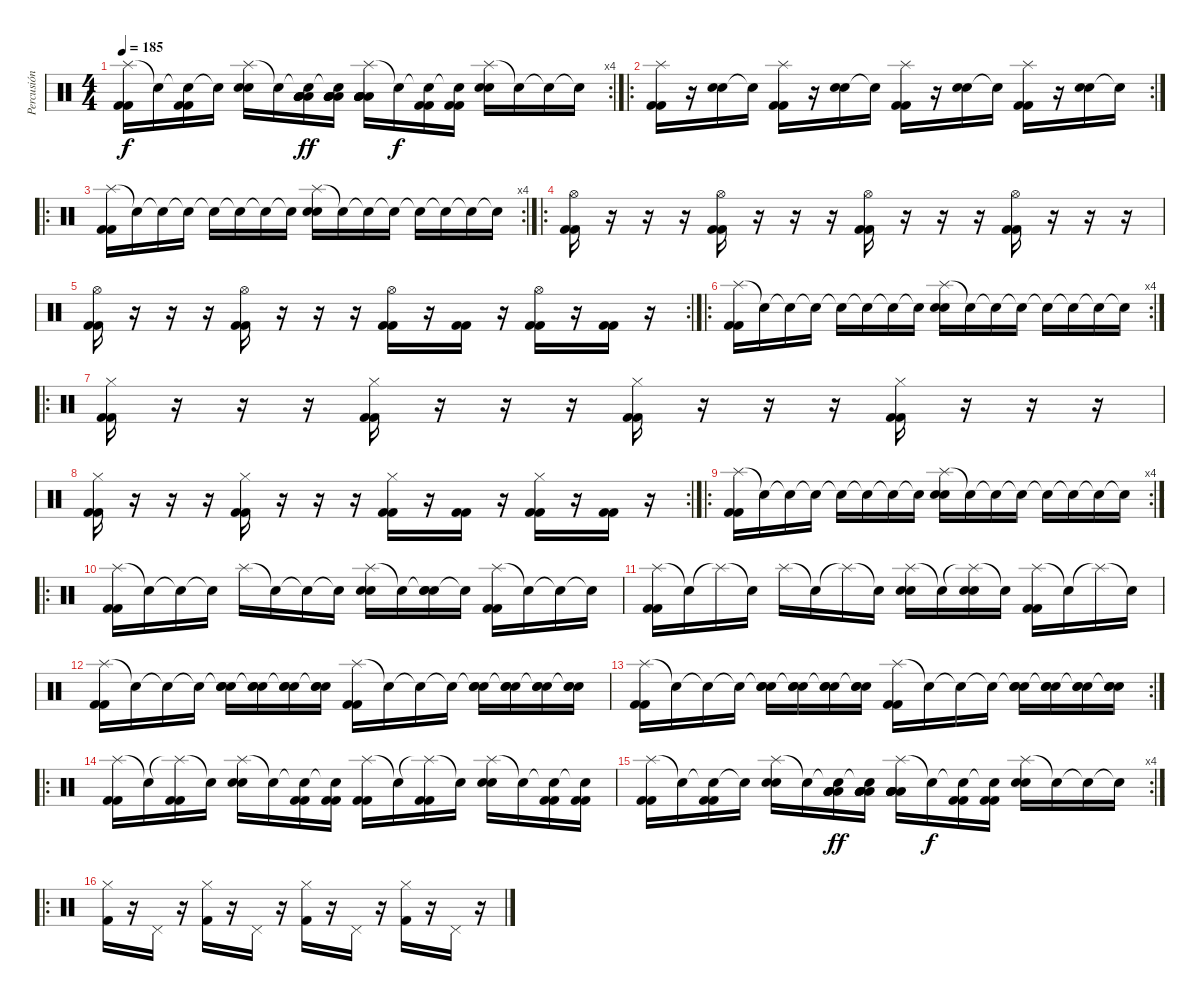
\track ("Percusión" "Percusión") {instrument percussion}
\staff {score}
\articulation defaults
\rc 4
\ts (4 4)
\tempo 185
\clef neutral
\ks c
("Splash (hit)" "Kick (hit) 2" "Kick (hit) 2").16{dy f} "Snare (hit)"{t}.16 ("Snare (hit)"{t} "Kick (hit) 2" "Kick (hit) 2").16 "Snare (hit)"{t}.16 ("Splash (hit)" "Electric Snare (hit)" "Electric Snare (hit)").16 "Snare (hit)"{t}.16 ("Snare (hit)"{t} "Low Tom (hit)" "Low Tom (hit)" "Low Tom (hit)" "Low Tom (hit)" "Low Tom (hit)").16{dy ff} ("Snare (hit)"{t} "Low Tom (hit)" "Low Tom (hit)" "Low Tom (hit)" "Low Tom (hit)" "Low Tom (hit)").16 ("Splash (hit)" "Low Tom (hit)" "Low Tom (hit)" "Low Tom (hit)" "Low Tom (hit)" "Low Tom (hit)").16 "Snare (hit)"{t}.16{dy f} ("Snare (hit)"{t} "Kick (hit) 2" "Kick (hit) 2").16 ("Snare (hit)"{t} "Kick (hit) 2" "Kick (hit) 2").16 ("Splash (hit)" "Electric Snare (hit)" "Electric Snare (hit)").16 "Snare (hit)"{t}.16 "Snare (hit)"{t}.16 "Snare (hit)"{t}.16 |
\ro
\rc 2
("Splash (hit)" "Kick (hit) 2" "Kick (hit) 2").16 r.16 ("Electric Snare (hit)" "Electric Snare (hit)").16 "Snare (hit)"{t}.16 ("Splash (hit)" "Kick (hit) 2" "Kick (hit) 2").16 r.16 ("Electric Snare (hit)" "Electric Snare (hit)").16 "Snare (hit)"{t}.16 ("Splash (hit)" "Kick (hit) 2" "Kick (hit) 2").16 r.16 ("Electric Snare (hit)" "Electric Snare (hit)").16 "Snare (hit)"{t}.16 ("Splash (hit)" "Kick (hit) 2" "Kick (hit) 2").16 r.16 ("Electric Snare (hit)" "Electric Snare (hit)").16 "Snare (hit)"{t}.16 |
\ro
\rc 4
("Splash (hit)" "Kick (hit) 2" "Kick (hit) 2").16 "Snare (hit)"{t}.16 "Snare (hit)"{t}.16 "Snare (hit)"{t}.16 "Snare (hit)"{t}.16 "Snare (hit)"{t}.16 "Snare (hit)"{t}.16 "Snare (hit)"{t}.16 ("Splash (hit)" "Electric Snare (hit)" "Electric Snare (hit)").16 "Snare (hit)"{t}.16 "Snare (hit)"{t}.16 "Snare (hit)"{t}.16 "Snare (hit)"{t}.16 "Snare (hit)"{t}.16 "Snare (hit)"{t}.16 "Snare (hit)"{t}.16 |
\ro
("Hi-Hat (open)" "Kick (hit) 2" "Kick (hit) 2").16 r.16 r.16 r.16 ("Hi-Hat (open)" "Kick (hit) 2" "Kick (hit) 2").16 r.16 r.16 r.16 ("Hi-Hat (open)" "Kick (hit) 2" "Kick (hit) 2").16 r.16 r.16 r.16 ("Hi-Hat (open)" "Kick (hit) 2" "Kick (hit) 2").16 r.16 r.16 r.16 |
\rc 2
("Hi-Hat (open)" "Kick (hit) 2" "Kick (hit) 2").16 r.16 r.16 r.16 ("Hi-Hat (open)" "Kick (hit) 2" "Kick (hit) 2").16 r.16 r.16 r.16 ("Hi-Hat (open)" "Kick (hit) 2" "Kick (hit) 2").16 r.16 ("Kick (hit) 2" "Kick (hit) 2").16 r.16 ("Hi-Hat (open)" "Kick (hit) 2" "Kick (hit) 2").16 r.16 ("Kick (hit) 2" "Kick (hit) 2").16 r.16 |
\ro
\rc 4
("Splash (hit)" "Kick (hit) 2" "Kick (hit) 2").16 "Snare (hit)"{t}.16 "Snare (hit)"{t}.16 "Snare (hit)"{t}.16 "Snare (hit)"{t}.16 "Snare (hit)"{t}.16 "Snare (hit)"{t}.16 "Snare (hit)"{t}.16 ("Splash (hit)" "Electric Snare (hit)" "Electric Snare (hit)").16 "Snare (hit)"{t}.16 "Snare (hit)"{t}.16 "Snare (hit)"{t}.16 "Snare (hit)"{t}.16 "Snare (hit)"{t}.16 "Snare (hit)"{t}.16 "Snare (hit)"{t}.16 |
\ro
("Hi-Hat (closed)" "Kick (hit) 2" "Kick (hit) 2").16 r.16 r.16 r.16 ("Hi-Hat (closed)" "Kick (hit) 2" "Kick (hit) 2").16 r.16 r.16 r.16 ("Hi-Hat (closed)" "Kick (hit) 2" "Kick (hit) 2").16 r.16 r.16 r.16 ("Hi-Hat (closed)" "Kick (hit) 2" "Kick (hit) 2").16 r.16 r.16 r.16 |
\rc 2
("Hi-Hat (closed)" "Kick (hit) 2" "Kick (hit) 2").16 r.16 r.16 r.16 ("Hi-Hat (closed)" "Kick (hit) 2" "Kick (hit) 2").16 r.16 r.16 r.16 ("Hi-Hat (closed)" "Kick (hit) 2" "Kick (hit) 2").16 r.16 ("Kick (hit) 2" "Kick (hit) 2").16 r.16 ("Hi-Hat (closed)" "Kick (hit) 2" "Kick (hit) 2").16 r.16 ("Kick (hit) 2" "Kick (hit) 2").16 r.16 |
\ro
\rc 4
("Splash (hit)" "Kick (hit) 2" "Kick (hit) 2").16 "Snare (hit)"{t}.16 "Snare (hit)"{t}.16 "Snare (hit)"{t}.16 "Snare (hit)"{t}.16 "Snare (hit)"{t}.16 "Snare (hit)"{t}.16 "Snare (hit)"{t}.16 ("Splash (hit)" "Electric Snare (hit)" "Electric Snare (hit)").16 "Snare (hit)"{t}.16 "Snare (hit)"{t}.16 "Snare (hit)"{t}.16 "Snare (hit)"{t}.16 "Snare (hit)"{t}.16 "Snare (hit)"{t}.16 "Snare (hit)"{t}.16 |
\ro
("Splash (hit)" "Kick (hit) 2" "Kick (hit) 2").16 "Snare (hit)"{t}.16 "Snare (hit)"{t}.16 "Snare (hit)"{t}.16 "Splash (hit)".16 "Snare (hit)"{t}.16 "Snare (hit)"{t}.16 "Snare (hit)"{t}.16 ("Splash (hit)" "Electric Snare (hit)" "Electric Snare (hit)").16 "Snare (hit)"{t}.16 ("Snare (hit)"{t} "Electric Snare (hit)" "Electric Snare (hit)").16 "Snare (hit)"{t}.16 ("Splash (hit)" "Kick (hit) 2" "Kick (hit) 2").16 "Snare (hit)"{t}.16 "Snare (hit)"{t}.16 "Snare (hit)"{t}.16 |
("Splash (hit)" "Kick (hit) 2" "Kick (hit) 2").16 "Snare (hit)"{t}.16 "Splash (hit)"{t}.16 "Snare (hit)"{t}.16 "Splash (hit)".16 "Snare (hit)"{t}.16 "Splash (hit)"{t}.16 "Snare (hit)"{t}.16 ("Splash (hit)" "Electric Snare (hit)" "Electric Snare (hit)").16 "Snare (hit)"{t}.16 ("Splash (hit)"{t} "Electric Snare (hit)" "Electric Snare (hit)").16 "Snare (hit)"{t}.16 ("Splash (hit)" "Kick (hit) 2" "Kick (hit) 2").16 "Snare (hit)"{t}.16 "Splash (hit)"{t}.16 "Snare (hit)"{t}.16 |
("Splash (hit)" "Kick (hit) 2" "Kick (hit) 2").16 "Snare (hit)"{t}.16 "Snare (hit)"{t}.16 "Snare (hit)"{t}.16 ("Snare (hit)"{t} "Electric Snare (hit)" "Electric Snare (hit)").16 ("Snare (hit)"{t} "Electric Snare (hit)" "Electric Snare (hit)").16 ("Snare (hit)"{t} "Electric Snare (hit)" "Electric Snare (hit)").16 ("Snare (hit)"{t} "Electric Snare (hit)" "Electric Snare (hit)").16 ("Splash (hit)" "Kick (hit) 2" "Kick (hit) 2").16 "Snare (hit)"{t}.16 "Snare (hit)"{t}.16 "Snare (hit)"{t}.16 ("Snare (hit)"{t} "Electric Snare (hit)" "Electric Snare (hit)").16 ("Snare (hit)"{t} "Electric Snare (hit)" "Electric Snare (hit)").16 ("Snare (hit)"{t} "Electric Snare (hit)" "Electric Snare (hit)").16 ("Snare (hit)"{t} "Electric Snare (hit)" "Electric Snare (hit)").16 |
\rc 2
("Splash (hit)" "Kick (hit) 2" "Kick (hit) 2").16 "Snare (hit)"{t}.16 "Snare (hit)"{t}.16 "Snare (hit)"{t}.16 ("Snare (hit)"{t} "Electric Snare (hit)" "Electric Snare (hit)").16 ("Snare (hit)"{t} "Electric Snare (hit)" "Electric Snare (hit)").16 ("Snare (hit)"{t} "Electric Snare (hit)" "Electric Snare (hit)").16 ("Snare (hit)"{t} "Electric Snare (hit)" "Electric Snare (hit)").16 ("Splash (hit)" "Kick (hit) 2" "Kick (hit) 2").16 "Snare (hit)"{t}.16 "Snare (hit)"{t}.16 "Snare (hit)"{t}.16 ("Snare (hit)"{t} "Electric Snare (hit)" "Electric Snare (hit)").16 ("Snare (hit)"{t} "Electric Snare (hit)" "Electric Snare (hit)").16 ("Snare (hit)"{t} "Electric Snare (hit)" "Electric Snare (hit)").16 ("Snare (hit)"{t} "Electric Snare (hit)" "Electric Snare (hit)").16 |
\ro
("Splash (hit)" "Kick (hit) 2" "Kick (hit) 2").16 "Snare (hit)"{t}.16 ("Splash (hit)"{t} "Kick (hit) 2" "Kick (hit) 2").16 "Snare (hit)"{t}.16 ("Splash (hit)" "Electric Snare (hit)" "Electric Snare (hit)").16 "Snare (hit)"{t}.16 ("Snare (hit)"{t} "Kick (hit) 2" "Kick (hit) 2").16 ("Snare (hit)"{t} "Kick (hit) 2" "Kick (hit) 2").16 ("Splash (hit)" "Kick (hit) 2" "Kick (hit) 2").16 "Snare (hit)"{t}.16 ("Splash (hit)"{t} "Kick (hit) 2" "Kick (hit) 2").16 "Snare (hit)"{t}.16 ("Splash (hit)" "Electric Snare (hit)" "Electric Snare (hit)").16 "Snare (hit)"{t}.16 ("Snare (hit)"{t} "Kick (hit) 2" "Kick (hit) 2").16 ("Snare (hit)"{t} "Kick (hit) 2" "Kick (hit) 2").16 |
\rc 4
("Splash (hit)" "Kick (hit) 2" "Kick (hit) 2").16 "Snare (hit)"{t}.16 ("Snare (hit)"{t} "Kick (hit) 2" "Kick (hit) 2").16 "Snare (hit)"{t}.16 ("Splash (hit)" "Electric Snare (hit)" "Electric Snare (hit)").16 "Snare (hit)"{t}.16 ("Snare (hit)"{t} "Low Tom (hit)" "Low Tom (hit)" "Low Tom (hit)" "Low Tom (hit)" "Low Tom (hit)").16{dy ff} ("Snare (hit)"{t} "Low Tom (hit)" "Low Tom (hit)" "Low Tom (hit)" "Low Tom (hit)" "Low Tom (hit)").16 ("Splash (hit)" "Low Tom (hit)" "Low Tom (hit)" "Low Tom (hit)" "Low Tom (hit)" "Low Tom (hit)").16 "Snare (hit)"{t}.16{dy f} ("Snare (hit)"{t} "Kick (hit) 2" "Kick (hit) 2").16 ("Snare (hit)"{t} "Kick (hit) 2" "Kick (hit) 2").16 ("Splash (hit)" "Electric Snare (hit)" "Electric Snare (hit)").16 "Snare (hit)"{t}.16 "Snare (hit)"{t}.16 "Snare (hit)"{t}.16 |
\ro
("Hi-Hat (closed)" "Kick (hit) 2").16 r.16 "Pedal Hi-Hat (hit)".16 r.16 ("Hi-Hat (closed)" "Kick (hit) 2").16 r.16 "Pedal Hi-Hat (hit)".16 r.16 ("Hi-Hat (closed)" "Kick (hit) 2").16 r.16 "Pedal Hi-Hat (hit)".16 r.16 ("Hi-Hat (closed)" "Kick (hit) 2").16 r.16 "Pedal Hi-Hat (hit)".16 r.16
